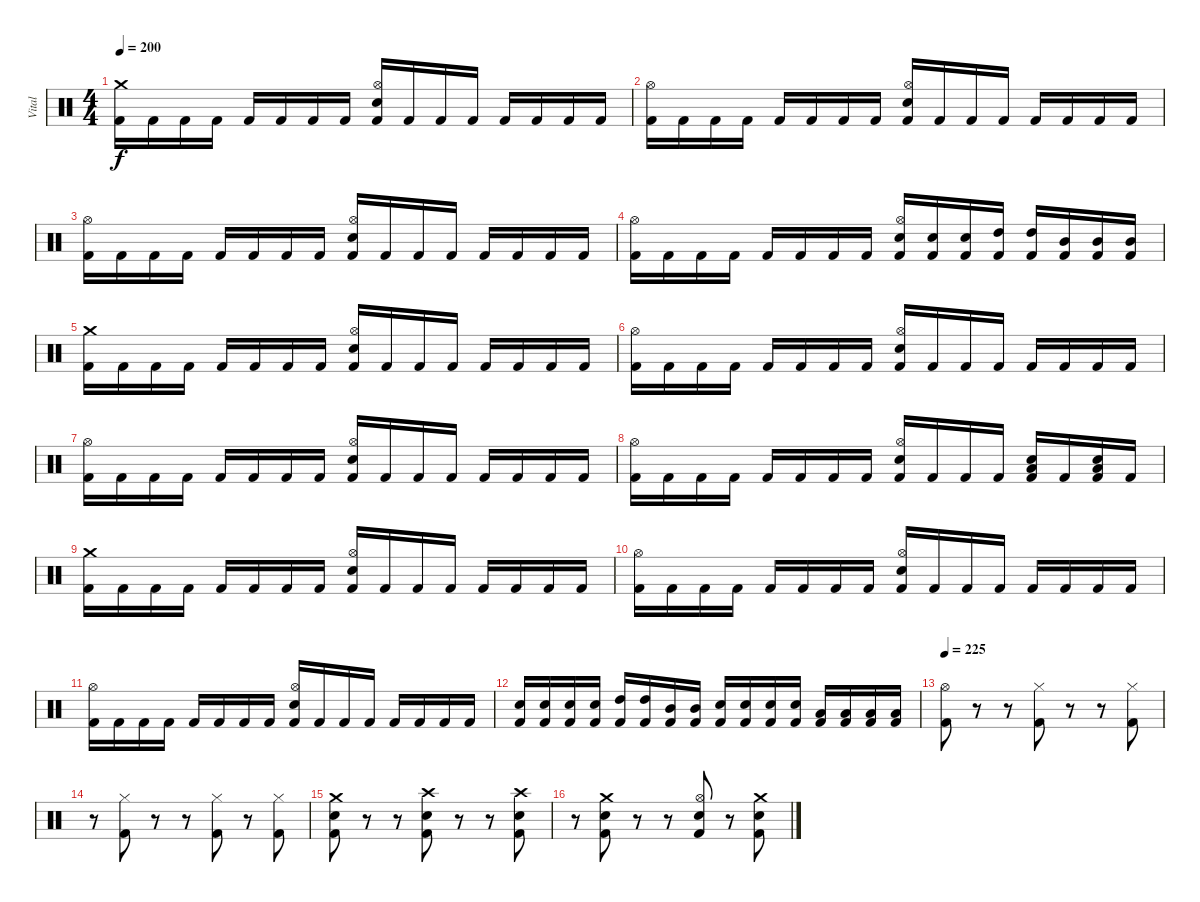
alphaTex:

\track ("Vital" "Vital") {instrument percussion}
\staff {score}
\articulation defaults
\ts (4 4)
\tempo 200
\clef neutral
\ks c
("Crash medium (hit)" "Kick (hit) 2").16{dy f} "Kick (hit) 2".16 "Kick (hit) 2".16 "Kick (hit) 2".16 "Kick (hit) 2".16 "Kick (hit) 2".16 "Kick (hit) 2".16 "Kick (hit) 2".16 ("Hi-Hat (open)" "Snare (hit) 2" "Kick (hit) 2").16 "Kick (hit) 2".16 "Kick (hit) 2".16 "Kick (hit) 2".16 "Kick (hit) 2".16 "Kick (hit) 2".16 "Kick (hit) 2".16 "Kick (hit) 2".16 |
("Hi-Hat (open)" "Kick (hit) 2").16 "Kick (hit) 2".16 "Kick (hit) 2".16 "Kick (hit) 2".16 "Kick (hit) 2".16 "Kick (hit) 2".16 "Kick (hit) 2".16 "Kick (hit) 2".16 ("Hi-Hat (open)" "Snare (hit) 2" "Kick (hit) 2").16 "Kick (hit) 2".16 "Kick (hit) 2".16 "Kick (hit) 2".16 "Kick (hit) 2".16 "Kick (hit) 2".16 "Kick (hit) 2".16 "Kick (hit) 2".16 |
("Hi-Hat (open)" "Kick (hit) 2").16 "Kick (hit) 2".16 "Kick (hit) 2".16 "Kick (hit) 2".16 "Kick (hit) 2".16 "Kick (hit) 2".16 "Kick (hit) 2".16 "Kick (hit) 2".16 ("Hi-Hat (open)" "Snare (hit) 2" "Kick (hit) 2").16 "Kick (hit) 2".16 "Kick (hit) 2".16 "Kick (hit) 2".16 "Kick (hit) 2".16 "Kick (hit) 2".16 "Kick (hit) 2".16 "Kick (hit) 2".16 |
("Hi-Hat (open)" "Kick (hit) 2").16 "Kick (hit) 2".16 "Kick (hit) 2".16 "Kick (hit) 2".16 "Kick (hit) 2".16 "Kick (hit) 2".16 "Kick (hit) 2".16 "Kick (hit) 2".16 ("Hi-Hat (open)" "Snare (hit) 2" "Kick (hit) 2").16 ("Snare (hit) 2" "Kick (hit) 2").16 ("Snare (hit) 2" "Kick (hit) 2").16 ("High Tom (hit)" "Kick (hit) 2").16 ("High Tom (hit)" "Kick (hit) 2").16 ("Mid Tom (hit)" "Kick (hit) 2").16 ("Mid Tom (hit)" "Kick (hit) 2").16 ("Mid Tom (hit)" "Kick (hit) 2").16 |
("Crash medium (hit)" "Kick (hit) 2").16 "Kick (hit) 2".16 "Kick (hit) 2".16 "Kick (hit) 2".16 "Kick (hit) 2".16 "Kick (hit) 2".16 "Kick (hit) 2".16 "Kick (hit) 2".16 ("Hi-Hat (open)" "Snare (hit) 2" "Kick (hit) 2").16 "Kick (hit) 2".16 "Kick (hit) 2".16 "Kick (hit) 2".16 "Kick (hit) 2".16 "Kick (hit) 2".16 "Kick (hit) 2".16 "Kick (hit) 2".16 |
("Hi-Hat (open)" "Kick (hit) 2").16 "Kick (hit) 2".16 "Kick (hit) 2".16 "Kick (hit) 2".16 "Kick (hit) 2".16 "Kick (hit) 2".16 "Kick (hit) 2".16 "Kick (hit) 2".16 ("Hi-Hat (open)" "Snare (hit) 2" "Kick (hit) 2").16 "Kick (hit) 2".16 "Kick (hit) 2".16 "Kick (hit) 2".16 "Kick (hit) 2".16 "Kick (hit) 2".16 "Kick (hit) 2".16 "Kick (hit) 2".16 |
("Hi-Hat (open)" "Kick (hit) 2").16 "Kick (hit) 2".16 "Kick (hit) 2".16 "Kick (hit) 2".16 "Kick (hit) 2".16 "Kick (hit) 2".16 "Kick (hit) 2".16 "Kick (hit) 2".16 ("Hi-Hat (open)" "Snare (hit) 2" "Kick (hit) 2").16 "Kick (hit) 2".16 "Kick (hit) 2".16 "Kick (hit) 2".16 "Kick (hit) 2".16 "Kick (hit) 2".16 "Kick (hit) 2".16 "Kick (hit) 2".16 |
("Hi-Hat (open)" "Kick (hit) 2").16 "Kick (hit) 2".16 "Kick (hit) 2".16 "Kick (hit) 2".16 "Kick (hit) 2".16 "Kick (hit) 2".16 "Kick (hit) 2".16 "Kick (hit) 2".16 ("Hi-Hat (open)" "Snare (hit) 2" "Kick (hit) 2").16 "Kick (hit) 2".16 "Kick (hit) 2".16 "Kick (hit) 2".16 ("Snare (hit) 2" "Low Tom (hit)" "Kick (hit) 2").16 "Kick (hit) 2".16 ("Snare (hit) 2" "Low Tom (hit)" "Kick (hit) 2").16 "Kick (hit) 2".16 |
("Crash medium (hit)" "Kick (hit) 2").16 "Kick (hit) 2".16 "Kick (hit) 2".16 "Kick (hit) 2".16 "Kick (hit) 2".16 "Kick (hit) 2".16 "Kick (hit) 2".16 "Kick (hit) 2".16 ("Hi-Hat (open)" "Snare (hit) 2" "Kick (hit) 2").16 "Kick (hit) 2".16 "Kick (hit) 2".16 "Kick (hit) 2".16 "Kick (hit) 2".16 "Kick (hit) 2".16 "Kick (hit) 2".16 "Kick (hit) 2".16 |
("Hi-Hat (open)" "Kick (hit) 2").16 "Kick (hit) 2".16 "Kick (hit) 2".16 "Kick (hit) 2".16 "Kick (hit) 2".16 "Kick (hit) 2".16 "Kick (hit) 2".16 "Kick (hit) 2".16 ("Hi-Hat (open)" "Snare (hit) 2" "Kick (hit) 2").16 "Kick (hit) 2".16 "Kick (hit) 2".16 "Kick (hit) 2".16 "Kick (hit) 2".16 "Kick (hit) 2".16 "Kick (hit) 2".16 "Kick (hit) 2".16 |
("Hi-Hat (open)" "Kick (hit) 2").16 "Kick (hit) 2".16 "Kick (hit) 2".16 "Kick (hit) 2".16 "Kick (hit) 2".16 "Kick (hit) 2".16 "Kick (hit) 2".16 "Kick (hit) 2".16 ("Hi-Hat (open)" "Snare (hit) 2" "Kick (hit) 2").16 "Kick (hit) 2".16 "Kick (hit) 2".16 "Kick (hit) 2".16 "Kick (hit) 2".16 "Kick (hit) 2".16 "Kick (hit) 2".16 "Kick (hit) 2".16 |
("Snare (hit) 2" "Kick (hit) 2").16 ("Snare (hit) 2" "Kick (hit) 2").16 ("Snare (hit) 2" "Kick (hit) 2").16 ("Snare (hit) 2" "Kick (hit) 2").16 ("High Tom (hit)" "Kick (hit) 2").16 ("High Tom (hit)" "Kick (hit) 2").16 ("Mid Tom (hit)" "Kick (hit) 2").16 ("Mid Tom (hit)" "Kick (hit) 2").16 ("Snare (hit) 2" "Kick (hit) 2").16 ("Snare (hit) 2" "Kick (hit) 2").16 ("Snare (hit) 2" "Kick (hit) 2").16 ("Snare (hit) 2" "Kick (hit) 2").16 ("Low Tom (hit)" "Kick (hit) 2").16 ("Low Tom (hit)" "Kick (hit) 2").16 ("Low Tom (hit)" "Kick (hit) 2").16 ("Low Tom (hit)" "Kick (hit) 2").16 |
\tempo 225
("Hi-Hat (open)" "Kick (hit) 2").8 r.8 r.8 ("Hi-Hat (closed)" "Kick (hit) 2").8 r.8 r.8 ("Hi-Hat (closed)" "Kick (hit) 2").8 |
r.8 ("Hi-Hat (closed)" "Kick (hit) 2").8 r.8 r.8 ("Hi-Hat (closed)" "Kick (hit) 2").8 r.8 ("Hi-Hat (closed)" "Kick (hit) 2").8 |
("Crash medium (hit)" "Snare (hit) 2" "Kick (hit) 2").8 r.8 r.8 ("Crash high (hit)" "Snare (hit) 2" "Kick (hit) 2").8 r.8 r.8 ("Crash high (hit)" "Snare (hit) 2" "Kick (hit) 2").8 |
r.8 ("Crash medium (hit)" "Snare (hit) 2" "Kick (hit) 2").8 r.8 r.8 ("Hi-Hat (open)" "Snare (hit) 2" "Kick (hit) 2").8 r.8 ("Crash medium (hit)" "Snare (hit) 2" "Kick (hit) 2").8
